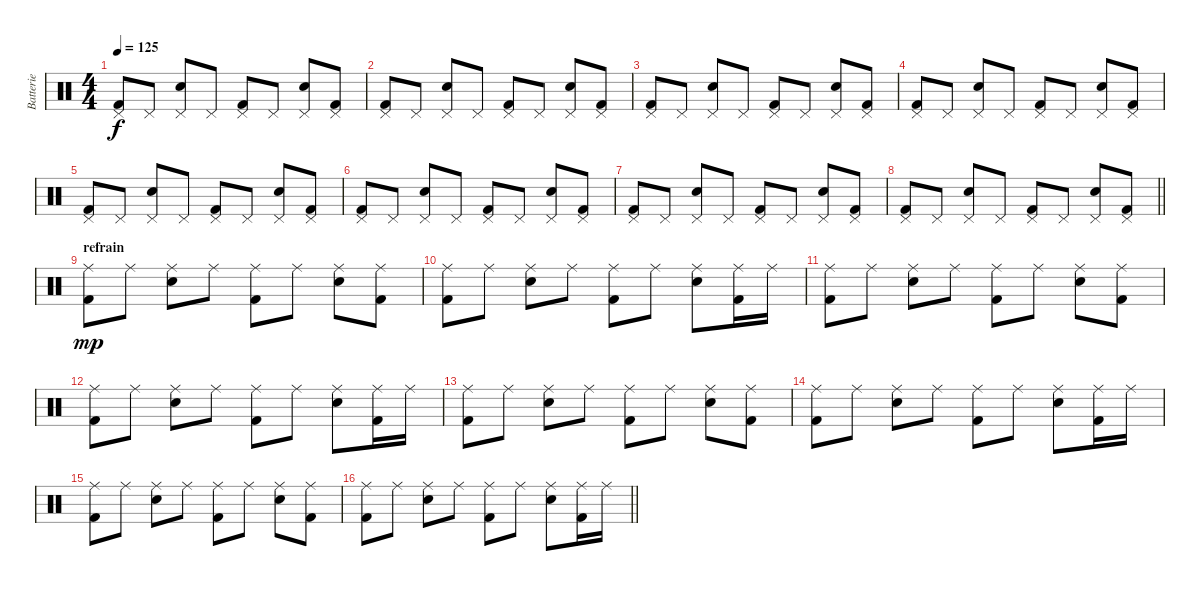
\track ("Batterie" "Batterie") {instrument percussion}
\staff {score}
\articulation defaults
\ts (4 4)
\tempo 125
\clef neutral
\ks c
("Pedal Hi-Hat (hit)" "Kick (hit) 2").8{dy f} "Pedal Hi-Hat (hit)".8 ("Pedal Hi-Hat (hit)" "Electric Snare (hit)").8 "Pedal Hi-Hat (hit)".8 ("Pedal Hi-Hat (hit)" "Kick (hit) 2").8 "Pedal Hi-Hat (hit)".8 ("Pedal Hi-Hat (hit)" "Electric Snare (hit)").8 ("Pedal Hi-Hat (hit)" "Kick (hit) 2").8 |
("Pedal Hi-Hat (hit)" "Kick (hit) 2").8 "Pedal Hi-Hat (hit)".8 ("Pedal Hi-Hat (hit)" "Electric Snare (hit)").8 "Pedal Hi-Hat (hit)".8 ("Pedal Hi-Hat (hit)" "Kick (hit) 2").8 "Pedal Hi-Hat (hit)".8 ("Pedal Hi-Hat (hit)" "Electric Snare (hit)").8 ("Pedal Hi-Hat (hit)" "Kick (hit) 2").8 |
("Pedal Hi-Hat (hit)" "Kick (hit) 2").8 "Pedal Hi-Hat (hit)".8 ("Pedal Hi-Hat (hit)" "Electric Snare (hit)").8 "Pedal Hi-Hat (hit)".8 ("Pedal Hi-Hat (hit)" "Kick (hit) 2").8 "Pedal Hi-Hat (hit)".8 ("Pedal Hi-Hat (hit)" "Electric Snare (hit)").8 ("Pedal Hi-Hat (hit)" "Kick (hit) 2").8 |
("Pedal Hi-Hat (hit)" "Kick (hit) 2").8 "Pedal Hi-Hat (hit)".8 ("Pedal Hi-Hat (hit)" "Electric Snare (hit)").8 "Pedal Hi-Hat (hit)".8 ("Pedal Hi-Hat (hit)" "Kick (hit) 2").8 "Pedal Hi-Hat (hit)".8 ("Pedal Hi-Hat (hit)" "Electric Snare (hit)").8 ("Pedal Hi-Hat (hit)" "Kick (hit) 2").8 |
("Pedal Hi-Hat (hit)" "Kick (hit) 2").8 "Pedal Hi-Hat (hit)".8 ("Pedal Hi-Hat (hit)" "Electric Snare (hit)").8 "Pedal Hi-Hat (hit)".8 ("Pedal Hi-Hat (hit)" "Kick (hit) 2").8 "Pedal Hi-Hat (hit)".8 ("Pedal Hi-Hat (hit)" "Electric Snare (hit)").8 ("Pedal Hi-Hat (hit)" "Kick (hit) 2").8 |
("Pedal Hi-Hat (hit)" "Kick (hit) 2").8 "Pedal Hi-Hat (hit)".8 ("Pedal Hi-Hat (hit)" "Electric Snare (hit)").8 "Pedal Hi-Hat (hit)".8 ("Pedal Hi-Hat (hit)" "Kick (hit) 2").8 "Pedal Hi-Hat (hit)".8 ("Pedal Hi-Hat (hit)" "Electric Snare (hit)").8 ("Pedal Hi-Hat (hit)" "Kick (hit) 2").8 |
("Pedal Hi-Hat (hit)" "Kick (hit) 2").8 "Pedal Hi-Hat (hit)".8 ("Pedal Hi-Hat (hit)" "Electric Snare (hit)").8 "Pedal Hi-Hat (hit)".8 ("Pedal Hi-Hat (hit)" "Kick (hit) 2").8 "Pedal Hi-Hat (hit)".8 ("Pedal Hi-Hat (hit)" "Electric Snare (hit)").8 ("Pedal Hi-Hat (hit)" "Kick (hit) 2").8 |
\barLineRight lightlight
("Pedal Hi-Hat (hit)" "Kick (hit) 2").8 "Pedal Hi-Hat (hit)".8 ("Pedal Hi-Hat (hit)" "Electric Snare (hit)").8 "Pedal Hi-Hat (hit)".8 ("Pedal Hi-Hat (hit)" "Kick (hit) 2").8 "Pedal Hi-Hat (hit)".8 ("Pedal Hi-Hat (hit)" "Electric Snare (hit)").8 ("Pedal Hi-Hat (hit)" "Kick (hit) 2").8 |
\section ("" "refrain")
("Ride (middle)" "Kick (hit) 2").8{dy mp} "Ride (middle)".8 ("Ride (middle)" "Electric Snare (hit)").8 "Ride (middle)".8 ("Ride (middle)" "Kick (hit) 2").8 "Ride (middle)".8 ("Ride (middle)" "Electric Snare (hit)").8 ("Ride (middle)" "Kick (hit) 2").8 |
("Ride (middle)" "Kick (hit) 2").8 "Ride (middle)".8 ("Ride (middle)" "Electric Snare (hit)").8 "Ride (middle)".8 ("Ride (middle)" "Kick (hit) 2").8 "Ride (middle)".8 ("Ride (middle)" "Electric Snare (hit)").8 ("Ride (middle)" "Kick (hit) 2").16 "Ride (middle)".16 |
("Ride (middle)" "Kick (hit) 2").8 "Ride (middle)".8 ("Ride (middle)" "Electric Snare (hit)").8 "Ride (middle)".8 ("Ride (middle)" "Kick (hit) 2").8 "Ride (middle)".8 ("Ride (middle)" "Electric Snare (hit)").8 ("Ride (middle)" "Kick (hit) 2").8 |
("Ride (middle)" "Kick (hit) 2").8 "Ride (middle)".8 ("Ride (middle)" "Electric Snare (hit)").8 "Ride (middle)".8 ("Ride (middle)" "Kick (hit) 2").8 "Ride (middle)".8 ("Ride (middle)" "Electric Snare (hit)").8 ("Ride (middle)" "Kick (hit) 2").16 "Ride (middle)".16 |
("Ride (middle)" "Kick (hit) 2").8 "Ride (middle)".8 ("Ride (middle)" "Electric Snare (hit)").8 "Ride (middle)".8 ("Ride (middle)" "Kick (hit) 2").8 "Ride (middle)".8 ("Ride (middle)" "Electric Snare (hit)").8 ("Ride (middle)" "Kick (hit) 2").8 |
("Ride (middle)" "Kick (hit) 2").8 "Ride (middle)".8 ("Ride (middle)" "Electric Snare (hit)").8 "Ride (middle)".8 ("Ride (middle)" "Kick (hit) 2").8 "Ride (middle)".8 ("Ride (middle)" "Electric Snare (hit)").8 ("Ride (middle)" "Kick (hit) 2").16 "Ride (middle)".16 |
("Ride (middle)" "Kick (hit) 2").8 "Ride (middle)".8 ("Ride (middle)" "Electric Snare (hit)").8 "Ride (middle)".8 ("Ride (middle)" "Kick (hit) 2").8 "Ride (middle)".8 ("Ride (middle)" "Electric Snare (hit)").8 ("Ride (middle)" "Kick (hit) 2").8 |
\barLineRight lightlight
("Ride (middle)" "Kick (hit) 2").8 "Ride (middle)".8 ("Ride (middle)" "Electric Snare (hit)").8 "Ride (middle)".8 ("Ride (middle)" "Kick (hit) 2").8 "Ride (middle)".8 ("Ride (middle)" "Electric Snare (hit)").8 ("Ride (middle)" "Kick (hit) 2").16 "Ride (middle)".16
